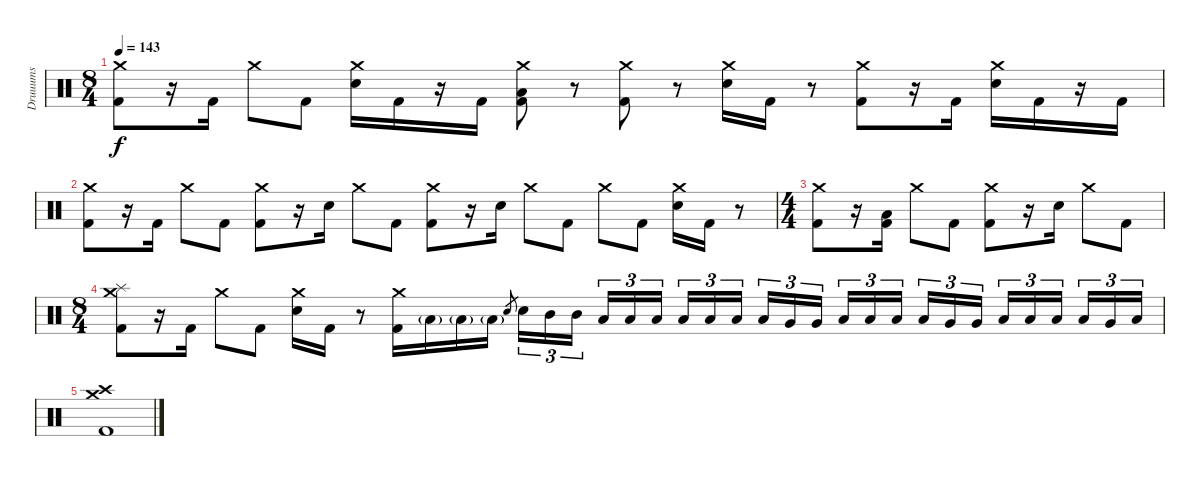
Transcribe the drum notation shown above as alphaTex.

\track ("Druuums" "Druuums") {instrument percussion}
\staff {score}
\articulation defaults
\ts (8 4)
\tempo 143
\clef neutral
\ks c
("Crash medium (hit)" "Kick (hit) 2").8{dy f} r.16 "Kick (hit) 2".16 "Crash medium (hit)".8 "Kick (hit) 2".8 ("Crash medium (hit)" "Electric Snare (hit)").16 "Kick (hit) 2".16 r.16 "Kick (hit) 2".16 ("Crash medium (hit)" "Low Tom (hit)" "Kick (hit) 2").8 r.8 ("Crash medium (hit)" "Kick (hit) 2").8 r.8 ("Crash medium (hit)" "Electric Snare (hit)").16 "Kick (hit) 2".16 r.8 ("Crash medium (hit)" "Kick (hit) 2").8 r.16 "Kick (hit) 2".16 ("Crash medium (hit)" "Electric Snare (hit)").16 "Kick (hit) 2".16 r.16 "Kick (hit) 2".16 |
("Crash medium (hit)" "Kick (hit) 2").8 r.16 "Kick (hit) 2".16 "Crash medium (hit)".8 "Kick (hit) 2".8 ("Crash medium (hit)" "Kick (hit) 2").8 r.16 "Electric Snare (hit)".16 "Crash medium (hit)".8 "Kick (hit) 2".8 ("Crash medium (hit)" "Kick (hit) 2").8 r.16 "Electric Snare (hit)".16 "Crash medium (hit)".8 "Kick (hit) 2".8 "Crash medium (hit)".8 "Kick (hit) 2".8 ("Crash medium (hit)" "Electric Snare (hit)").16 "Kick (hit) 2".16 r.8 |
\ts (4 4)
("Crash medium (hit)" "Kick (hit) 2").8 r.16 ("Low Tom (hit)" "Kick (hit) 2").16 "Crash medium (hit)".8 "Kick (hit) 2".8 ("Crash medium (hit)" "Kick (hit) 2").8 r.16 "Electric Snare (hit)".16 "Crash medium (hit)".8 "Kick (hit) 2".8 |
\ts (8 4)
("Crash medium (hit)" "Splash (hit)" "Kick (hit) 2").8 r.16 "Kick (hit) 2".16 "Crash medium (hit)".8 "Kick (hit) 2".8 ("Crash medium (hit)" "Electric Snare (hit)").16 "Kick (hit) 2".16 r.8 ("Crash medium (hit)" "Kick (hit) 2").16 "Low Tom (hit)"{g}.16 "Low Tom (hit)"{g}.16 "Low Tom (hit)"{g}.16 "Electric Snare (hit)".8{gr} "Electric Snare (hit)".16{tu (3 2)} "Mid Tom (hit)".16{tu (3 2)} "Mid Tom (hit)".16{tu (3 2) beam splitsecondary} "Low Tom (hit)".16{tu (3 2)} "Low Tom (hit)".16{tu (3 2)} "Low Tom (hit)".16{tu (3 2)} "Low Floor Tom (hit)".16{tu (3 2)} "Low Floor Tom (hit)".16{tu (3 2)} "Low Tom (hit)".16{tu (3 2) beam splitsecondary} "Low Tom (hit)".16{tu (3 2)} "Very Low Tom (hit)".16{tu (3 2)} "Very Low Tom (hit)".16{tu (3 2)} "Low Floor Tom (hit)".16{tu (3 2)} "Low Floor Tom (hit)".16{tu (3 2)} "Low Tom (hit)".16{tu (3 2) beam splitsecondary} "Low Tom (hit)".16{tu (3 2)} "Very Low Tom (hit)".16{tu (3 2)} "Very Low Tom (hit)".16{tu (3 2)} "Low Floor Tom (hit)".16{tu (3 2)} "Low Floor Tom (hit)".16{tu (3 2)} "Low Floor Tom (hit)".16{tu (3 2) beam splitsecondary} "Low Tom (hit)".16{tu (3 2)} "Very Low Tom (hit)".16{tu (3 2)} "Low Floor Tom (hit)".16{tu (3 2)} |
("Crash medium (hit)" "Crash high (hit)" "Kick (hit) 2").1
